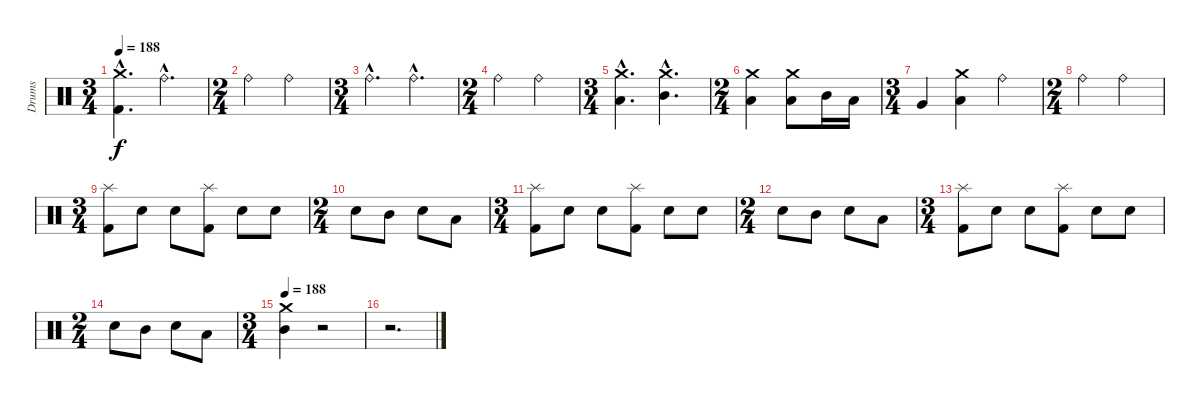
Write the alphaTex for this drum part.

\track ("Drums" "Drums") {instrument percussion}
\staff {score}
\articulation defaults
\ts (3 4)
\tempo 188
\clef neutral
\ks c
("Crash medium (hit)"{hac} "Kick (hit) 2"{hac}).4{d dy f} "Ride (bell)"{hac}.4{d} |
\ts (2 4)
"Ride (bell)".4 "Ride (bell)".4 |
\ts (3 4)
"Ride (bell)"{hac}.4{d} "Ride (bell)"{hac}.4{d} |
\ts (2 4)
"Ride (bell)".4 "Ride (bell)".4 |
\ts (3 4)
("Crash medium (hit)"{hac} "Low Tom (hit)"{hac}).4{d} ("Crash medium (hit)"{hac} "Mid Tom (hit)"{hac}).4{d} |
\ts (2 4)
("Crash medium (hit)" "Low Tom (hit)").4 ("Crash medium (hit)" "Low Tom (hit)").8 "Mid Tom (hit)".16 "Low Tom (hit)".16 |
\ts (3 4)
"Very Low Tom (hit)".4 ("Crash medium (hit)" "Low Floor Tom (hit)").4 "Ride (bell)".4 |
\ts (2 4)
"Ride (bell)".4 "Ride (bell)".4 |
\ts (3 4)
("Splash (hit)" "Kick (hit) 2").8 "Snare (hit) 2".8 "Snare (hit) 2".8 ("Splash (hit)" "Kick (hit) 2").8 "Snare (hit) 2".8 "Snare (hit) 2".8 |
\ts (2 4)
"Snare (hit) 2".8 "Mid Tom (hit)".8 "Electric Snare (hit)".8 "Low Tom (hit)".8 |
\ts (3 4)
("Splash (hit)" "Kick (hit) 2").8 "Snare (hit) 2".8 "Snare (hit) 2".8 ("Splash (hit)" "Kick (hit) 2").8 "Snare (hit) 2".8 "Snare (hit) 2".8 |
\ts (2 4)
"Snare (hit) 2".8 "Mid Tom (hit)".8 "Electric Snare (hit)".8 "Low Tom (hit)".8 |
\ts (3 4)
("Splash (hit)" "Kick (hit) 2").8 "Snare (hit) 2".8 "Snare (hit) 2".8 ("Splash (hit)" "Kick (hit) 2").8 "Snare (hit) 2".8 "Snare (hit) 2".8 |
\ts (2 4)
"Snare (hit) 2".8 "Mid Tom (hit)".8 "Electric Snare (hit)".8 "Low Tom (hit)".8 |
\ts (3 4)
\tempo 188
("Crash medium (hit)" "Mid Tom (hit)").4 r.2 |
r.2{d}
